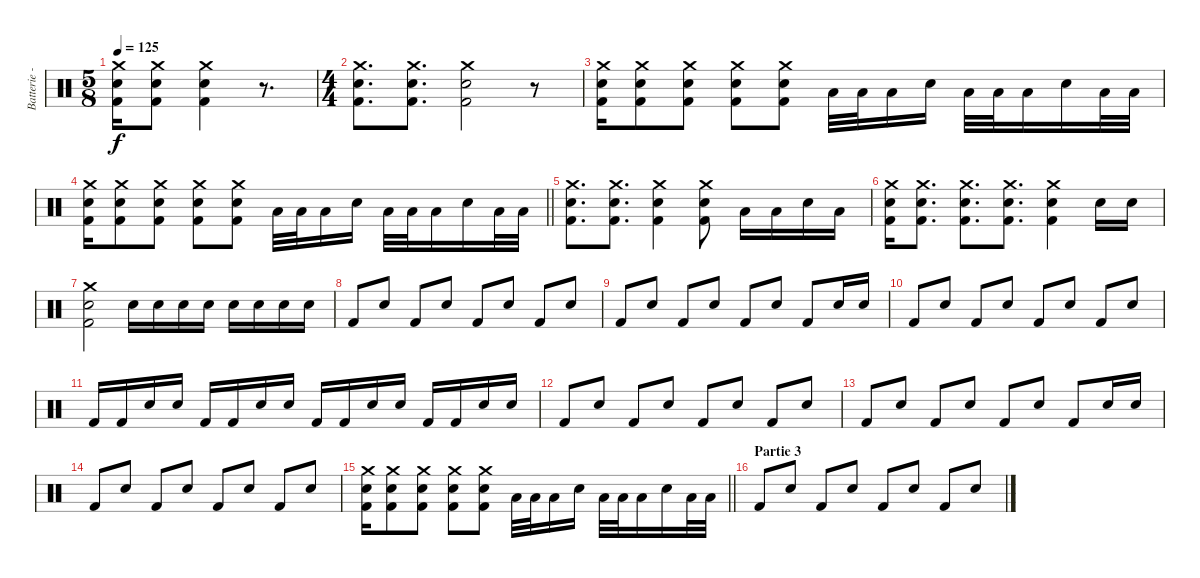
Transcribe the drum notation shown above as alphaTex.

\track ("Batterie - Shane Gaalaas" "Batterie -") {instrument percussion}
\staff {score}
\articulation defaults
\ts (5 8)
\tempo 125
\clef neutral
\ks c
("Crash medium (hit)" "Electric Snare (hit)" "Kick (hit) 2").16{dy f} ("Crash medium (hit)" "Electric Snare (hit)" "Kick (hit) 2").8 ("Crash medium (hit)" "Electric Snare (hit)" "Kick (hit) 2").4 r.8{d} |
\ts (4 4)
("Crash medium (hit)" "Electric Snare (hit)" "Kick (hit) 2").8{d} ("Crash medium (hit)" "Electric Snare (hit)" "Kick (hit) 2").8{d} ("Crash medium (hit)" "Electric Snare (hit)" "Kick (hit) 2").2 r.8 |
("Crash medium (hit)" "Electric Snare (hit)" "Kick (hit) 2").16 ("Crash medium (hit)" "Electric Snare (hit)" "Kick (hit) 2").8 ("Crash medium (hit)" "Electric Snare (hit)" "Kick (hit) 2").8 ("Crash medium (hit)" "Electric Snare (hit)" "Kick (hit) 2").8 ("Crash medium (hit)" "Electric Snare (hit)" "Kick (hit) 2").8 "Low Tom (hit)".32 "Low Tom (hit)".32 "Low Tom (hit)".16 "Electric Snare (hit)".16 "Low Tom (hit)".32 "Low Tom (hit)".32 "Low Tom (hit)".16 "Electric Snare (hit)".16 "Low Tom (hit)".32 "Low Tom (hit)".32 |
\barLineRight lightlight
("Crash medium (hit)" "Electric Snare (hit)" "Kick (hit) 2").16 ("Crash medium (hit)" "Electric Snare (hit)" "Kick (hit) 2").8 ("Crash medium (hit)" "Electric Snare (hit)" "Kick (hit) 2").8 ("Crash medium (hit)" "Electric Snare (hit)" "Kick (hit) 2").8 ("Crash medium (hit)" "Electric Snare (hit)" "Kick (hit) 2").8 "Low Tom (hit)".32 "Low Tom (hit)".32 "Low Tom (hit)".16 "Electric Snare (hit)".16 "Low Tom (hit)".32 "Low Tom (hit)".32 "Low Tom (hit)".16 "Electric Snare (hit)".16 "Low Tom (hit)".32 "Low Tom (hit)".32 |
("Crash medium (hit)" "Electric Snare (hit)" "Kick (hit) 2").8{d} ("Crash medium (hit)" "Electric Snare (hit)" "Kick (hit) 2").8{d} ("Crash medium (hit)" "Electric Snare (hit)" "Kick (hit) 2").4 ("Crash medium (hit)" "Electric Snare (hit)" "Kick (hit) 2").8 "Low Tom (hit)".16 "Low Tom (hit)".16 "Electric Snare (hit)".16 "Low Tom (hit)".16 |
("Crash medium (hit)" "Electric Snare (hit)" "Kick (hit) 2").16 ("Crash medium (hit)" "Electric Snare (hit)" "Kick (hit) 2").8{d} ("Crash medium (hit)" "Electric Snare (hit)" "Kick (hit) 2").8{d} ("Crash medium (hit)" "Electric Snare (hit)" "Kick (hit) 2").8{d} ("Crash medium (hit)" "Electric Snare (hit)" "Kick (hit) 2").4 "Electric Snare (hit)".16 "Electric Snare (hit)".16 |
("Crash medium (hit)" "Electric Snare (hit)" "Kick (hit) 2").2 "Electric Snare (hit)".16 "Electric Snare (hit)".16 "Electric Snare (hit)".16 "Electric Snare (hit)".16 "Electric Snare (hit)".16 "Electric Snare (hit)".16 "Electric Snare (hit)".16 "Electric Snare (hit)".16 |
"Kick (hit) 2".8 "Electric Snare (hit)".8 "Kick (hit) 2".8 "Electric Snare (hit)".8 "Kick (hit) 2".8 "Electric Snare (hit)".8 "Kick (hit) 2".8 "Electric Snare (hit)".8 |
"Kick (hit) 2".8 "Electric Snare (hit)".8 "Kick (hit) 2".8 "Electric Snare (hit)".8 "Kick (hit) 2".8 "Electric Snare (hit)".8 "Kick (hit) 2".8 "Electric Snare (hit)".16 "Electric Snare (hit)".16 |
"Kick (hit) 2".8 "Electric Snare (hit)".8 "Kick (hit) 2".8 "Electric Snare (hit)".8 "Kick (hit) 2".8 "Electric Snare (hit)".8 "Kick (hit) 2".8 "Electric Snare (hit)".8 |
"Kick (hit) 2".16 "Kick (hit) 2".16 "Electric Snare (hit)".16 "Electric Snare (hit)".16 "Kick (hit) 2".16 "Kick (hit) 2".16 "Electric Snare (hit)".16 "Electric Snare (hit)".16 "Kick (hit) 2".16 "Kick (hit) 2".16 "Electric Snare (hit)".16 "Electric Snare (hit)".16 "Kick (hit) 2".16 "Kick (hit) 2".16 "Electric Snare (hit)".16 "Electric Snare (hit)".16 |
"Kick (hit) 2".8 "Electric Snare (hit)".8 "Kick (hit) 2".8 "Electric Snare (hit)".8 "Kick (hit) 2".8 "Electric Snare (hit)".8 "Kick (hit) 2".8 "Electric Snare (hit)".8 |
"Kick (hit) 2".8 "Electric Snare (hit)".8 "Kick (hit) 2".8 "Electric Snare (hit)".8 "Kick (hit) 2".8 "Electric Snare (hit)".8 "Kick (hit) 2".8 "Electric Snare (hit)".16 "Electric Snare (hit)".16 |
"Kick (hit) 2".8 "Electric Snare (hit)".8 "Kick (hit) 2".8 "Electric Snare (hit)".8 "Kick (hit) 2".8 "Electric Snare (hit)".8 "Kick (hit) 2".8 "Electric Snare (hit)".8 |
\barLineRight lightlight
("Crash medium (hit)" "Electric Snare (hit)" "Kick (hit) 2").16 ("Crash medium (hit)" "Electric Snare (hit)" "Kick (hit) 2").8 ("Crash medium (hit)" "Electric Snare (hit)" "Kick (hit) 2").8 ("Crash medium (hit)" "Electric Snare (hit)" "Kick (hit) 2").8 ("Crash medium (hit)" "Electric Snare (hit)" "Kick (hit) 2").8 "Low Tom (hit)".32 "Low Tom (hit)".32 "Low Tom (hit)".16 "Electric Snare (hit)".16 "Low Tom (hit)".32 "Low Tom (hit)".32 "Low Tom (hit)".16 "Electric Snare (hit)".16 "Low Tom (hit)".32 "Low Tom (hit)".32 |
\section ("" "Partie 3")
"Kick (hit) 2".8 "Electric Snare (hit)".8 "Kick (hit) 2".8 "Electric Snare (hit)".8 "Kick (hit) 2".8 "Electric Snare (hit)".8 "Kick (hit) 2".8 "Electric Snare (hit)".8
